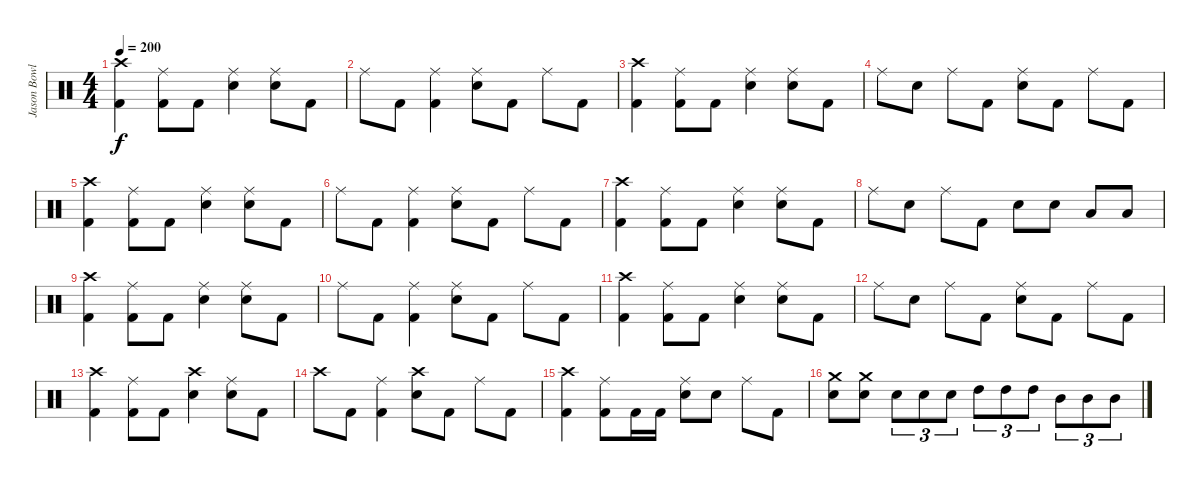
\track ("Jason Bowld" "Jason Bowl") {instrument percussion}
\staff {score}
\articulation defaults
\ts (4 4)
\tempo 200
\clef neutral
\ks c
("Crash high (hit)" "Kick (hit) 2").4{dy f} ("Ride (middle)" "Kick (hit) 2").8 "Kick (hit) 2".8 ("Ride (middle)" "Snare (hit) 2").4 ("Ride (middle)" "Snare (hit) 2").8 "Kick (hit) 2".8 |
"Ride (middle)".8 "Kick (hit) 2".8 ("Ride (middle)" "Kick (hit) 2").4 ("Ride (middle)" "Snare (hit) 2").8 "Kick (hit) 2".8 "Ride (middle)".8 "Kick (hit) 2".8 |
("Crash high (hit)" "Kick (hit) 2").4 ("Ride (middle)" "Kick (hit) 2").8 "Kick (hit) 2".8 ("Ride (middle)" "Snare (hit) 2").4 ("Ride (middle)" "Snare (hit) 2").8 "Kick (hit) 2".8 |
"Ride (middle)".8 "Snare (hit) 2".8 "Ride (middle)".8 "Kick (hit) 2".8 ("Ride (middle)" "Snare (hit) 2").8 "Kick (hit) 2".8 "Ride (middle)".8 "Kick (hit) 2".8 |
("Crash high (hit)" "Kick (hit) 2").4 ("Ride (middle)" "Kick (hit) 2").8 "Kick (hit) 2".8 ("Ride (middle)" "Snare (hit) 2").4 ("Ride (middle)" "Snare (hit) 2").8 "Kick (hit) 2".8 |
"Ride (middle)".8 "Kick (hit) 2".8 ("Ride (middle)" "Kick (hit) 2").4 ("Ride (middle)" "Snare (hit) 2").8 "Kick (hit) 2".8 "Ride (middle)".8 "Kick (hit) 2".8 |
("Crash high (hit)" "Kick (hit) 2").4 ("Ride (middle)" "Kick (hit) 2").8 "Kick (hit) 2".8 ("Ride (middle)" "Snare (hit) 2").4 ("Ride (middle)" "Snare (hit) 2").8 "Kick (hit) 2".8 |
"Ride (middle)".8 "Snare (hit) 2".8 "Ride (middle)".8 "Kick (hit) 2".8 "Snare (hit) 2".8 "Snare (hit) 2".8 "Low Tom (hit)".8 "Low Tom (hit)".8 |
("Crash high (hit)" "Kick (hit) 2").4 ("Ride (middle)" "Kick (hit) 2").8 "Kick (hit) 2".8 ("Ride (middle)" "Snare (hit) 2").4 ("Ride (middle)" "Snare (hit) 2").8 "Kick (hit) 2".8 |
"Ride (middle)".8 "Kick (hit) 2".8 ("Ride (middle)" "Kick (hit) 2").4 ("Ride (middle)" "Snare (hit) 2").8 "Kick (hit) 2".8 "Ride (middle)".8 "Kick (hit) 2".8 |
("Crash high (hit)" "Kick (hit) 2").4 ("Ride (middle)" "Kick (hit) 2").8 "Kick (hit) 2".8 ("Ride (middle)" "Snare (hit) 2").4 ("Ride (middle)" "Snare (hit) 2").8 "Kick (hit) 2".8 |
"Ride (middle)".8 "Snare (hit) 2".8 "Ride (middle)".8 "Kick (hit) 2".8 ("Ride (middle)" "Snare (hit) 2").8 "Kick (hit) 2".8 "Ride (middle)".8 "Kick (hit) 2".8 |
("Crash high (hit)" "Kick (hit) 2").4 ("Ride (middle)" "Kick (hit) 2").8 "Kick (hit) 2".8 ("Crash high (hit)" "Snare (hit) 2").4 ("Ride (middle)" "Snare (hit) 2").8 "Kick (hit) 2".8 |
"Crash high (hit)".8 "Kick (hit) 2".8 ("Ride (middle)" "Kick (hit) 2").4 ("Crash high (hit)" "Snare (hit) 2").8 "Kick (hit) 2".8 "Ride (middle)".8 "Kick (hit) 2".8 |
("Crash high (hit)" "Kick (hit) 2").4 ("Ride (middle)" "Kick (hit) 2").8 "Kick (hit) 2".16 "Kick (hit) 2".16 ("Ride (middle)" "Snare (hit) 2").8 "Snare (hit) 2".8 "Ride (middle)".8 "Kick (hit) 2".8 |
("Crash medium (hit)" "Snare (hit) 2").8 ("Crash medium (hit)" "Snare (hit) 2").8 "Snare (hit) 2".8{tu (3 2)} "Snare (hit) 2".8{tu (3 2)} "Snare (hit) 2".8{tu (3 2)} "High Tom (hit)".8{tu (3 2)} "High Tom (hit)".8{tu (3 2)} "High Tom (hit)".8{tu (3 2)} "Mid Tom (hit)".8{tu (3 2)} "Mid Tom (hit)".8{tu (3 2)} "Mid Tom (hit)".8{tu (3 2)}
